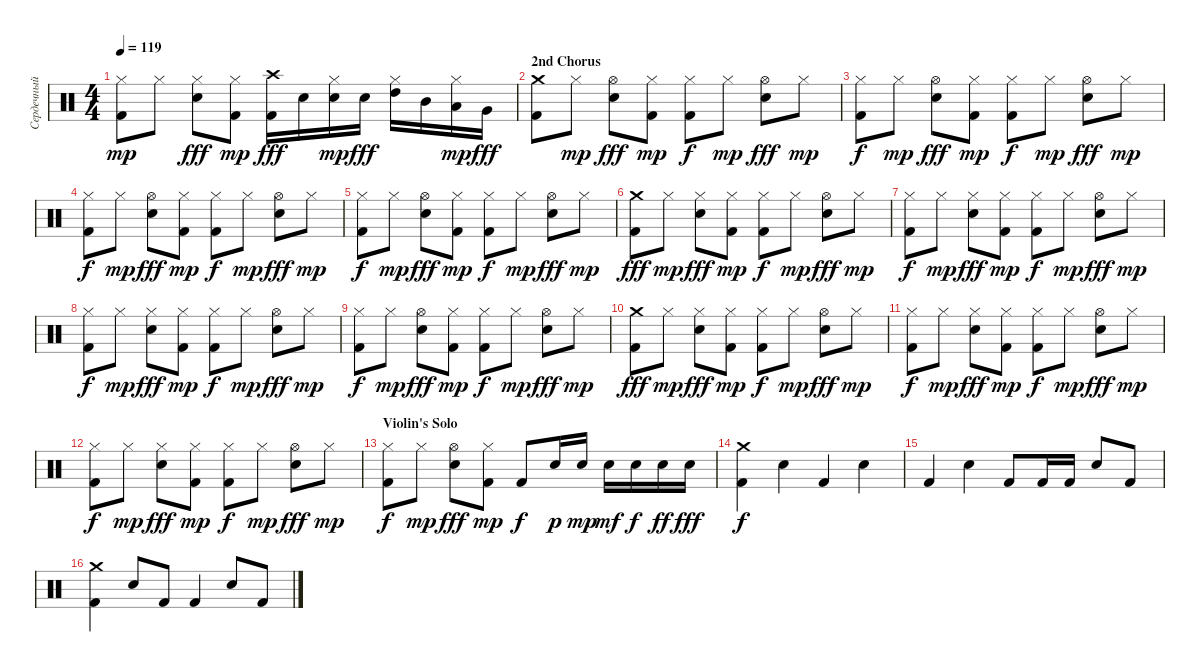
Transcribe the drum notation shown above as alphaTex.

\track ("Сердечный (Ударные)" "Сердечный ") {instrument percussion}
\staff {score}
\articulation defaults
\ts (4 4)
\tempo 119
\clef neutral
\ks c
("Kick (hit) 2" "Hi-Hat (closed)").8{dy mp} "Hi-Hat (closed)".8 ("Hi-Hat (closed)" "Electric Snare (hit)").8{dy fff} ("Hi-Hat (closed)" "Kick (hit) 2").8{dy mp} ("Crash high (hit)" "Kick (hit) 2").16{dy fff} "Electric Snare (hit)".16 ("Electric Snare (hit)" "Hi-Hat (closed)").16{dy mp} "Electric Snare (hit)".16{dy fff} ("Hi-Hat (closed)" "High Tom (hit)").16 "Mid Tom (hit)".16 ("Low Tom (hit)" "Hi-Hat (closed)").16{dy mp} "Very Low Tom (hit)".16{dy fff} |
\section ("" "2nd Chorus")
("Kick (hit) 2" "Crash medium (hit)").8 "Hi-Hat (closed)".8{dy mp} ("Hi-Hat (open)" "Electric Snare (hit)").8{dy fff} ("Hi-Hat (closed)" "Kick (hit) 2").8{dy mp} ("Hi-Hat (closed)" "Kick (hit) 2").8{dy f} "Hi-Hat (closed)".8{dy mp} ("Hi-Hat (open)" "Electric Snare (hit)").8{dy fff} "Hi-Hat (closed)".8{dy mp} |
("Kick (hit) 2" "Hi-Hat (closed)").8{dy f} "Hi-Hat (closed)".8{dy mp} ("Hi-Hat (open)" "Electric Snare (hit)").8{dy fff} ("Hi-Hat (closed)" "Kick (hit) 2").8{dy mp} ("Hi-Hat (closed)" "Kick (hit) 2").8{dy f} "Hi-Hat (closed)".8{dy mp} ("Hi-Hat (open)" "Electric Snare (hit)").8{dy fff} "Hi-Hat (closed)".8{dy mp} |
("Kick (hit) 2" "Hi-Hat (closed)").8{dy f} "Hi-Hat (closed)".8{dy mp} ("Hi-Hat (open)" "Electric Snare (hit)").8{dy fff} ("Hi-Hat (closed)" "Kick (hit) 2").8{dy mp} ("Hi-Hat (closed)" "Kick (hit) 2").8{dy f} "Hi-Hat (closed)".8{dy mp} ("Hi-Hat (open)" "Electric Snare (hit)").8{dy fff} "Hi-Hat (closed)".8{dy mp} |
("Kick (hit) 2" "Hi-Hat (closed)").8{dy f} "Hi-Hat (closed)".8{dy mp} ("Hi-Hat (open)" "Electric Snare (hit)").8{dy fff} ("Hi-Hat (closed)" "Kick (hit) 2").8{dy mp} ("Hi-Hat (closed)" "Kick (hit) 2").8{dy f} "Hi-Hat (closed)".8{dy mp} ("Hi-Hat (open)" "Electric Snare (hit)").8{dy fff} "Hi-Hat (closed)".8{dy mp} |
("Kick (hit) 2" "Crash medium (hit)").8{dy fff} "Hi-Hat (closed)".8{dy mp} ("Hi-Hat (closed)" "Electric Snare (hit)").8{dy fff} ("Hi-Hat (closed)" "Kick (hit) 2").8{dy mp} ("Hi-Hat (closed)" "Kick (hit) 2").8{dy f} "Hi-Hat (closed)".8{dy mp} ("Hi-Hat (open)" "Electric Snare (hit)").8{dy fff} "Hi-Hat (closed)".8{dy mp} |
("Kick (hit) 2" "Hi-Hat (closed)").8{dy f} "Hi-Hat (closed)".8{dy mp} ("Hi-Hat (closed)" "Electric Snare (hit)").8{dy fff} ("Hi-Hat (closed)" "Kick (hit) 2").8{dy mp} ("Hi-Hat (closed)" "Kick (hit) 2").8{dy f} "Hi-Hat (closed)".8{dy mp} ("Hi-Hat (open)" "Electric Snare (hit)").8{dy fff} "Hi-Hat (closed)".8{dy mp} |
("Kick (hit) 2" "Hi-Hat (closed)").8{dy f} "Hi-Hat (closed)".8{dy mp} ("Hi-Hat (closed)" "Electric Snare (hit)").8{dy fff} ("Hi-Hat (closed)" "Kick (hit) 2").8{dy mp} ("Hi-Hat (closed)" "Kick (hit) 2").8{dy f} "Hi-Hat (closed)".8{dy mp} ("Hi-Hat (open)" "Electric Snare (hit)").8{dy fff} "Hi-Hat (closed)".8{dy mp} |
("Kick (hit) 2" "Hi-Hat (closed)").8{dy f} "Hi-Hat (closed)".8{dy mp} ("Hi-Hat (open)" "Electric Snare (hit)").8{dy fff} ("Hi-Hat (closed)" "Kick (hit) 2").8{dy mp} ("Hi-Hat (closed)" "Kick (hit) 2").8{dy f} "Hi-Hat (closed)".8{dy mp} ("Hi-Hat (open)" "Electric Snare (hit)").8{dy fff} "Hi-Hat (closed)".8{dy mp} |
("Kick (hit) 2" "Crash medium (hit)").8{dy fff} "Hi-Hat (closed)".8{dy mp} ("Hi-Hat (closed)" "Electric Snare (hit)").8{dy fff} ("Hi-Hat (closed)" "Kick (hit) 2").8{dy mp} ("Hi-Hat (closed)" "Kick (hit) 2").8{dy f} "Hi-Hat (closed)".8{dy mp} ("Hi-Hat (open)" "Electric Snare (hit)").8{dy fff} "Hi-Hat (closed)".8{dy mp} |
("Kick (hit) 2" "Hi-Hat (closed)").8{dy f} "Hi-Hat (closed)".8{dy mp} ("Hi-Hat (closed)" "Electric Snare (hit)").8{dy fff} ("Hi-Hat (closed)" "Kick (hit) 2").8{dy mp} ("Hi-Hat (closed)" "Kick (hit) 2").8{dy f} "Hi-Hat (closed)".8{dy mp} ("Hi-Hat (open)" "Electric Snare (hit)").8{dy fff} "Hi-Hat (closed)".8{dy mp} |
("Kick (hit) 2" "Hi-Hat (closed)").8{dy f} "Hi-Hat (closed)".8{dy mp} ("Hi-Hat (closed)" "Electric Snare (hit)").8{dy fff} ("Hi-Hat (closed)" "Kick (hit) 2").8{dy mp} ("Hi-Hat (closed)" "Kick (hit) 2").8{dy f} "Hi-Hat (closed)".8{dy mp} ("Hi-Hat (open)" "Electric Snare (hit)").8{dy fff} "Hi-Hat (closed)".8{dy mp} |
\section ("" "Violin's Solo")
("Hi-Hat (closed)" "Kick (hit) 2").8{dy f} "Hi-Hat (closed)".8{dy mp} ("Hi-Hat (open)" "Electric Snare (hit)").8{dy fff} ("Hi-Hat (closed)" "Kick (hit) 2").8{dy mp} "Kick (hit) 2".8{dy f} "Electric Snare (hit)".16{dy p} "Electric Snare (hit)".16{dy mp} "Electric Snare (hit)".16{dy mf} "Electric Snare (hit)".16{dy f} "Electric Snare (hit)".16{dy ff} "Electric Snare (hit)".16{dy fff} |
("Kick (hit) 2" "Crash medium (hit)").4{dy f} "Electric Snare (hit)".4 "Kick (hit) 2".4 "Electric Snare (hit)".4 |
"Kick (hit) 2".4 "Electric Snare (hit)".4 "Kick (hit) 2".8 "Kick (hit) 2".16 "Kick (hit) 2".16 "Electric Snare (hit)".8 "Kick (hit) 2".8 |
("Kick (hit) 2" "Crash medium (hit)").4 "Electric Snare (hit)".8 "Kick (hit) 2".8 "Kick (hit) 2".4 "Electric Snare (hit)".8 "Kick (hit) 2".8
